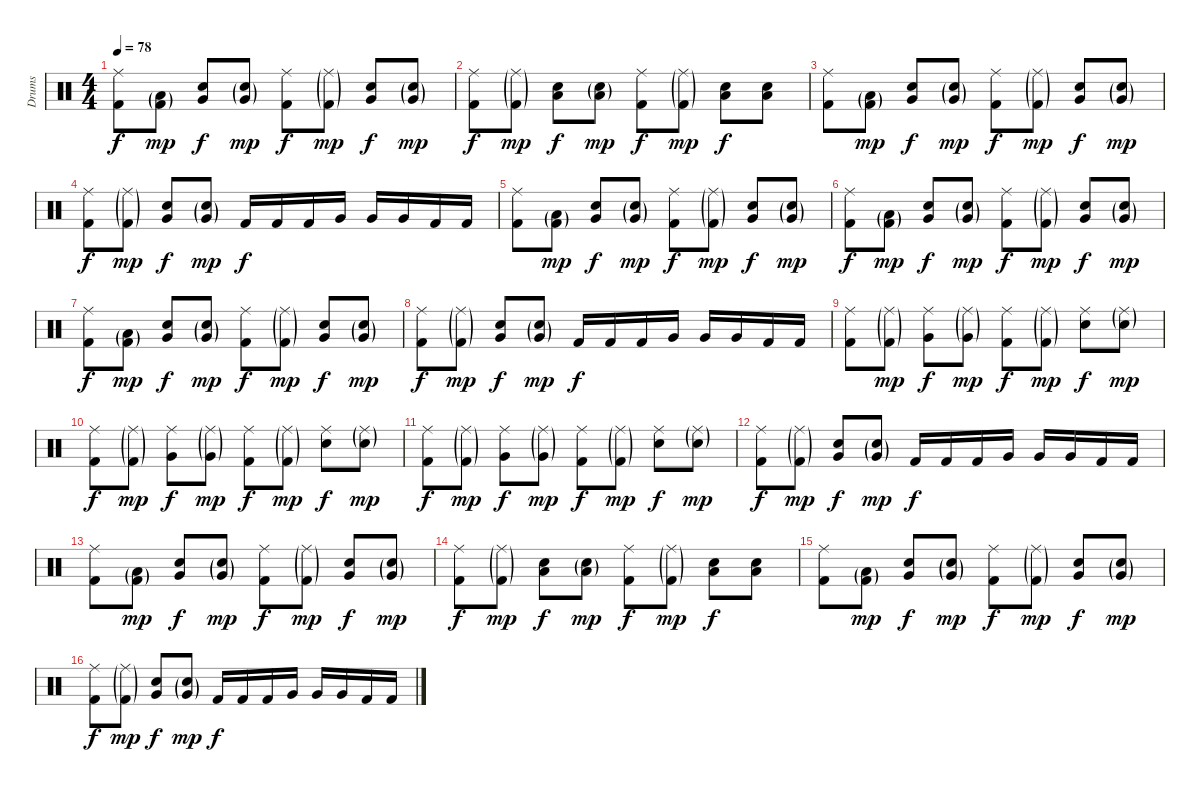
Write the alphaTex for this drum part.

\track ("Drums" "Drums") {instrument percussion}
\staff {score}
\articulation defaults
\ts (4 4)
\tempo 78
\clef neutral
\ks c
("Ride (middle)" "Kick (hit) 2").8{dy f} ("Low Floor Tom (hit)"{g} "Kick (hit) 2"{g}).8{dy mp} ("Snare (hit) 2" "Very Low Tom (hit)").8{dy f} ("Snare (hit) 2"{g} "Very Low Tom (hit)"{g}).8{dy mp} ("Ride (middle)" "Kick (hit) 2").8{dy f} ("Ride (middle)"{g} "Kick (hit) 2"{g}).8{dy mp} ("Snare (hit) 2" "Very Low Tom (hit)").8{dy f} ("Snare (hit) 2"{g} "Very Low Tom (hit)"{g}).8{dy mp} |
("Ride (middle)" "Kick (hit) 2").8{dy f} ("Ride (middle)"{g} "Kick (hit) 2"{g}).8{dy mp} ("Snare (hit) 2" "Low Tom (hit)").8{dy f} ("Snare (hit) 2"{g} "Low Tom (hit)"{g}).8{dy mp} ("Ride (middle)" "Kick (hit) 2").8{dy f} ("Ride (middle)"{g} "Kick (hit) 2"{g}).8{dy mp} ("Snare (hit) 2" "Low Tom (hit)").8{dy f} ("Snare (hit) 2" "Low Tom (hit)").8 |
("Ride (middle)" "Kick (hit) 2").8 ("Low Floor Tom (hit)"{g} "Kick (hit) 2"{g}).8{dy mp} ("Snare (hit) 2" "Very Low Tom (hit)").8{dy f} ("Snare (hit) 2"{g} "Very Low Tom (hit)"{g}).8{dy mp} ("Ride (middle)" "Kick (hit) 2").8{dy f} ("Ride (middle)"{g} "Kick (hit) 2"{g}).8{dy mp} ("Snare (hit) 2" "Very Low Tom (hit)").8{dy f} ("Snare (hit) 2"{g} "Very Low Tom (hit)"{g}).8{dy mp} |
("Ride (middle)" "Kick (hit) 2").8{dy f} ("Ride (middle)"{g} "Kick (hit) 2"{g}).8{dy mp} ("Snare (hit) 2" "Very Low Tom (hit)").8{dy f} ("Snare (hit) 2"{g} "Very Low Tom (hit)"{g}).8{dy mp} "Kick (hit) 2".16{dy f} "Kick (hit) 2".16 "Kick (hit) 2".16 "Very Low Tom (hit)".16 "Very Low Tom (hit)".16 "Very Low Tom (hit)".16 "Kick (hit) 2".16 "Kick (hit) 2".16 |
("Ride (middle)" "Kick (hit) 2").8 ("Low Floor Tom (hit)"{g} "Kick (hit) 2"{g}).8{dy mp} ("Snare (hit) 2" "Very Low Tom (hit)").8{dy f} ("Snare (hit) 2"{g} "Very Low Tom (hit)"{g}).8{dy mp} ("Ride (middle)" "Kick (hit) 2").8{dy f} ("Ride (middle)"{g} "Kick (hit) 2"{g}).8{dy mp} ("Snare (hit) 2" "Very Low Tom (hit)").8{dy f} ("Snare (hit) 2"{g} "Very Low Tom (hit)"{g}).8{dy mp} |
("Ride (middle)" "Kick (hit) 2").8{dy f} ("Low Floor Tom (hit)"{g} "Kick (hit) 2"{g}).8{dy mp} ("Snare (hit) 2" "Very Low Tom (hit)").8{dy f} ("Snare (hit) 2"{g} "Very Low Tom (hit)"{g}).8{dy mp} ("Ride (middle)" "Kick (hit) 2").8{dy f} ("Ride (middle)"{g} "Kick (hit) 2"{g}).8{dy mp} ("Snare (hit) 2" "Very Low Tom (hit)").8{dy f} ("Snare (hit) 2"{g} "Very Low Tom (hit)"{g}).8{dy mp} |
("Ride (middle)" "Kick (hit) 2").8{dy f} ("Low Floor Tom (hit)"{g} "Kick (hit) 2"{g}).8{dy mp} ("Snare (hit) 2" "Very Low Tom (hit)").8{dy f} ("Snare (hit) 2"{g} "Very Low Tom (hit)"{g}).8{dy mp} ("Ride (middle)" "Kick (hit) 2").8{dy f} ("Ride (middle)"{g} "Kick (hit) 2"{g}).8{dy mp} ("Snare (hit) 2" "Very Low Tom (hit)").8{dy f} ("Snare (hit) 2"{g} "Very Low Tom (hit)"{g}).8{dy mp} |
("Ride (middle)" "Kick (hit) 2").8{dy f} ("Ride (middle)"{g} "Kick (hit) 2"{g}).8{dy mp} ("Snare (hit) 2" "Very Low Tom (hit)").8{dy f} ("Snare (hit) 2"{g} "Very Low Tom (hit)"{g}).8{dy mp} "Kick (hit) 2".16{dy f} "Kick (hit) 2".16 "Kick (hit) 2".16 "Very Low Tom (hit)".16 "Very Low Tom (hit)".16 "Very Low Tom (hit)".16 "Kick (hit) 2".16 "Kick (hit) 2".16 |
("Ride (middle)" "Kick (hit) 2").8 ("Ride (middle)"{g} "Kick (hit) 2"{g}).8{dy mp} ("Ride (middle)" "Very Low Tom (hit)").8{dy f} ("Ride (middle)"{g} "Very Low Tom (hit)"{g}).8{dy mp} ("Ride (middle)" "Kick (hit) 2").8{dy f} ("Ride (middle)"{g} "Kick (hit) 2"{g}).8{dy mp} ("Ride (middle)" "Snare (hit) 2").8{dy f} ("Ride (middle)"{g} "Snare (hit) 2"{g}).8{dy mp} |
("Ride (middle)" "Kick (hit) 2").8{dy f} ("Ride (middle)"{g} "Kick (hit) 2"{g}).8{dy mp} ("Ride (middle)" "Very Low Tom (hit)").8{dy f} ("Ride (middle)"{g} "Very Low Tom (hit)"{g}).8{dy mp} ("Ride (middle)" "Kick (hit) 2").8{dy f} ("Ride (middle)"{g} "Kick (hit) 2"{g}).8{dy mp} ("Ride (middle)" "Snare (hit) 2").8{dy f} ("Ride (middle)"{g} "Snare (hit) 2"{g}).8{dy mp} |
("Ride (middle)" "Kick (hit) 2").8{dy f} ("Ride (middle)"{g} "Kick (hit) 2"{g}).8{dy mp} ("Ride (middle)" "Very Low Tom (hit)").8{dy f} ("Ride (middle)"{g} "Very Low Tom (hit)"{g}).8{dy mp} ("Ride (middle)" "Kick (hit) 2").8{dy f} ("Ride (middle)"{g} "Kick (hit) 2"{g}).8{dy mp} ("Ride (middle)" "Snare (hit) 2").8{dy f} ("Ride (middle)"{g} "Snare (hit) 2"{g}).8{dy mp} |
("Ride (middle)" "Kick (hit) 2").8{dy f} ("Ride (middle)"{g} "Kick (hit) 2"{g}).8{dy mp} ("Snare (hit) 2" "Very Low Tom (hit)").8{dy f} ("Snare (hit) 2"{g} "Very Low Tom (hit)"{g}).8{dy mp} "Kick (hit) 2".16{dy f} "Kick (hit) 2".16 "Kick (hit) 2".16 "Very Low Tom (hit)".16 "Very Low Tom (hit)".16 "Very Low Tom (hit)".16 "Kick (hit) 2".16 "Kick (hit) 2".16 |
("Ride (middle)" "Kick (hit) 2").8 ("Low Floor Tom (hit)"{g} "Kick (hit) 2"{g}).8{dy mp} ("Snare (hit) 2" "Very Low Tom (hit)").8{dy f} ("Snare (hit) 2"{g} "Very Low Tom (hit)"{g}).8{dy mp} ("Ride (middle)" "Kick (hit) 2").8{dy f} ("Ride (middle)"{g} "Kick (hit) 2"{g}).8{dy mp} ("Snare (hit) 2" "Very Low Tom (hit)").8{dy f} ("Snare (hit) 2"{g} "Very Low Tom (hit)"{g}).8{dy mp} |
("Ride (middle)" "Kick (hit) 2").8{dy f} ("Ride (middle)"{g} "Kick (hit) 2"{g}).8{dy mp} ("Snare (hit) 2" "Low Tom (hit)").8{dy f} ("Snare (hit) 2"{g} "Low Tom (hit)"{g}).8{dy mp} ("Ride (middle)" "Kick (hit) 2").8{dy f} ("Ride (middle)"{g} "Kick (hit) 2"{g}).8{dy mp} ("Snare (hit) 2" "Low Tom (hit)").8{dy f} ("Snare (hit) 2" "Low Tom (hit)").8 |
("Ride (middle)" "Kick (hit) 2").8 ("Low Floor Tom (hit)"{g} "Kick (hit) 2"{g}).8{dy mp} ("Snare (hit) 2" "Very Low Tom (hit)").8{dy f} ("Snare (hit) 2"{g} "Very Low Tom (hit)"{g}).8{dy mp} ("Ride (middle)" "Kick (hit) 2").8{dy f} ("Ride (middle)"{g} "Kick (hit) 2"{g}).8{dy mp} ("Snare (hit) 2" "Very Low Tom (hit)").8{dy f} ("Snare (hit) 2"{g} "Very Low Tom (hit)"{g}).8{dy mp} |
("Ride (middle)" "Kick (hit) 2").8{dy f} ("Ride (middle)"{g} "Kick (hit) 2"{g}).8{dy mp} ("Snare (hit) 2" "Very Low Tom (hit)").8{dy f} ("Snare (hit) 2"{g} "Very Low Tom (hit)"{g}).8{dy mp} "Kick (hit) 2".16{dy f} "Kick (hit) 2".16 "Kick (hit) 2".16 "Very Low Tom (hit)".16 "Very Low Tom (hit)".16 "Very Low Tom (hit)".16 "Kick (hit) 2".16 "Kick (hit) 2".16
